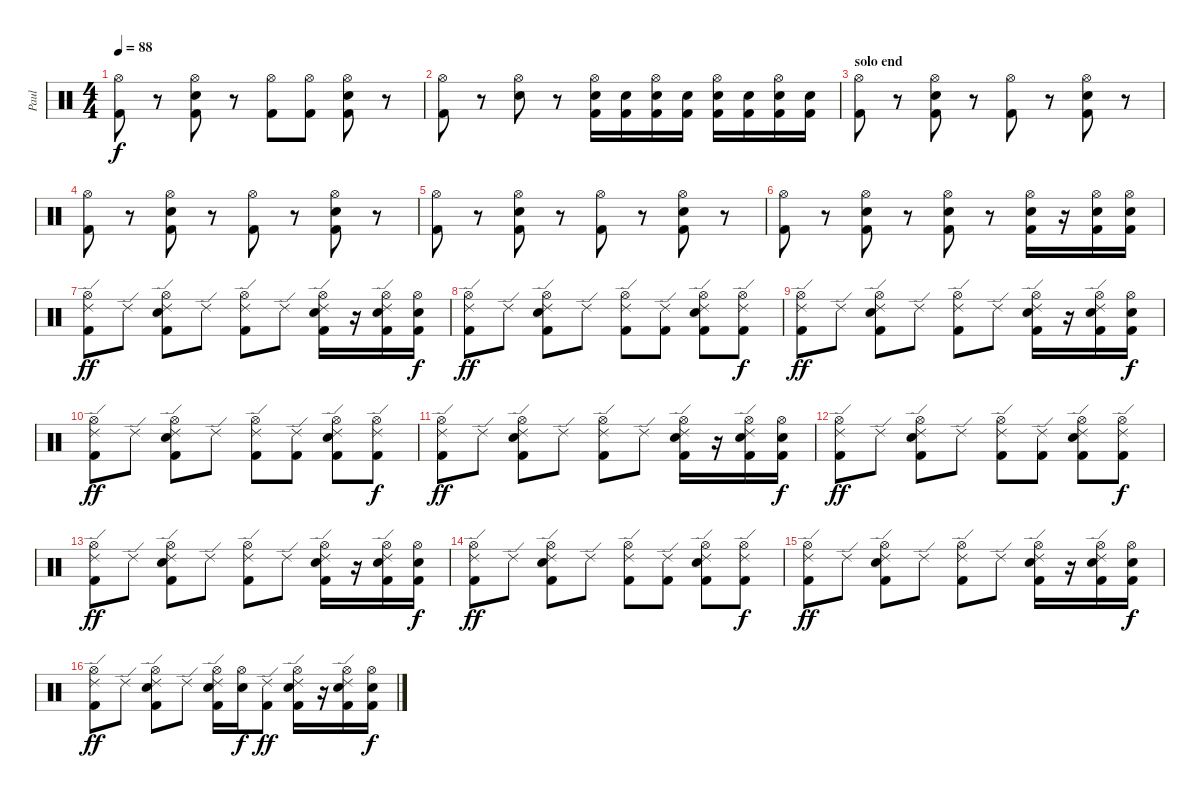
\track ("Paul" "Paul") {instrument percussion}
\staff {score}
\articulation defaults
\ts (4 4)
\tempo 88
\clef neutral
\ks c
("Hi-Hat (open)" "Kick (hit) 2").8{dy f} r.8 ("Snare (hit) 2" "Hi-Hat (open)" "Kick (hit) 2").8 r.8 ("Hi-Hat (open)" "Kick (hit) 2").8 ("Hi-Hat (open)" "Kick (hit) 2").8 ("Snare (hit) 2" "Hi-Hat (open)" "Kick (hit) 2").8 r.8 |
("Hi-Hat (open)" "Kick (hit) 2").8 r.8 ("Snare (hit) 2" "Hi-Hat (open)").8 r.8 ("Snare (hit) 2" "Hi-Hat (open)" "Kick (hit) 2").16 ("Snare (hit) 2" "Kick (hit) 2").16 ("Snare (hit) 2" "Hi-Hat (open)" "Kick (hit) 2").16 ("Snare (hit) 2" "Kick (hit) 2").16 ("Snare (hit) 2" "Hi-Hat (open)" "Kick (hit) 2").16 ("Snare (hit) 2" "Kick (hit) 2").16 ("Snare (hit) 2" "Hi-Hat (open)" "Kick (hit) 2").16 ("Snare (hit) 2" "Kick (hit) 2").16 |
\section ("" "solo end")
("Hi-Hat (open)" "Kick (hit) 2").8 r.8 ("Snare (hit) 2" "Hi-Hat (open)" "Kick (hit) 2").8 r.8 ("Hi-Hat (open)" "Kick (hit) 2").8 r.8 ("Snare (hit) 2" "Hi-Hat (open)" "Kick (hit) 2").8 r.8 |
("Hi-Hat (open)" "Kick (hit) 2").8 r.8 ("Snare (hit) 2" "Hi-Hat (open)" "Kick (hit) 2").8 r.8 ("Hi-Hat (open)" "Kick (hit) 2").8 r.8 ("Snare (hit) 2" "Hi-Hat (open)" "Kick (hit) 2").8 r.8 |
("Hi-Hat (open)" "Kick (hit) 2").8 r.8 ("Snare (hit) 2" "Hi-Hat (open)" "Kick (hit) 2").8 r.8 ("Hi-Hat (open)" "Kick (hit) 2").8 r.8 ("Snare (hit) 2" "Hi-Hat (open)" "Kick (hit) 2").8 r.8 |
("Hi-Hat (open)" "Kick (hit) 2").8 r.8 ("Snare (hit) 2" "Hi-Hat (open)" "Kick (hit) 2").8 r.8 ("Snare (hit) 2" "Hi-Hat (open)" "Kick (hit) 2").8 r.8 ("Snare (hit) 2" "Hi-Hat (open)" "Kick (hit) 2").16 r.16 ("Snare (hit) 2" "Hi-Hat (open)" "Kick (hit) 2").16 ("Snare (hit) 2" "Hi-Hat (open)" "Kick (hit) 2").16 |
("Hi-Hat (open)" "Ride (edge) 2" "Kick (hit) 2").8{dy ff} "Ride (edge) 2".8 ("Snare (hit) 2" "Hi-Hat (open)" "Ride (edge) 2" "Kick (hit) 2").8 "Ride (edge) 2".8 ("Hi-Hat (open)" "Ride (edge) 2" "Kick (hit) 2").8 "Ride (edge) 2".8 ("Snare (hit) 2" "Hi-Hat (open)" "Ride (edge) 2" "Kick (hit) 2").16 r.16 ("Snare (hit) 2" "Hi-Hat (open)" "Ride (edge) 2" "Kick (hit) 2").16 ("Snare (hit) 2" "Hi-Hat (open)" "Kick (hit) 2").16{dy f} |
("Hi-Hat (open)" "Ride (edge) 2" "Kick (hit) 2").8{dy ff} "Ride (edge) 2".8 ("Snare (hit) 2" "Hi-Hat (open)" "Ride (edge) 2" "Kick (hit) 2").8 "Ride (edge) 2".8 ("Hi-Hat (open)" "Ride (edge) 2" "Kick (hit) 2").8 ("Ride (edge) 2" "Kick (hit) 2").8 ("Snare (hit) 2" "Hi-Hat (open)" "Ride (edge) 2" "Kick (hit) 2").8 ("Hi-Hat (open)" "Ride (edge) 2" "Kick (hit) 2").8{dy f} |
("Hi-Hat (open)" "Ride (edge) 2" "Kick (hit) 2").8{dy ff} "Ride (edge) 2".8 ("Snare (hit) 2" "Hi-Hat (open)" "Ride (edge) 2" "Kick (hit) 2").8 "Ride (edge) 2".8 ("Hi-Hat (open)" "Ride (edge) 2" "Kick (hit) 2").8 "Ride (edge) 2".8 ("Snare (hit) 2" "Hi-Hat (open)" "Ride (edge) 2" "Kick (hit) 2").16 r.16 ("Snare (hit) 2" "Hi-Hat (open)" "Ride (edge) 2" "Kick (hit) 2").16 ("Snare (hit) 2" "Hi-Hat (open)" "Kick (hit) 2").16{dy f} |
("Hi-Hat (open)" "Ride (edge) 2" "Kick (hit) 2").8{dy ff} "Ride (edge) 2".8 ("Snare (hit) 2" "Hi-Hat (open)" "Ride (edge) 2" "Kick (hit) 2").8 "Ride (edge) 2".8 ("Hi-Hat (open)" "Ride (edge) 2" "Kick (hit) 2").8 ("Ride (edge) 2" "Kick (hit) 2").8 ("Snare (hit) 2" "Hi-Hat (open)" "Ride (edge) 2" "Kick (hit) 2").8 ("Hi-Hat (open)" "Ride (edge) 2" "Kick (hit) 2").8{dy f} |
("Hi-Hat (open)" "Ride (edge) 2" "Kick (hit) 2").8{dy ff} "Ride (edge) 2".8 ("Snare (hit) 2" "Hi-Hat (open)" "Ride (edge) 2" "Kick (hit) 2").8 "Ride (edge) 2".8 ("Hi-Hat (open)" "Ride (edge) 2" "Kick (hit) 2").8 "Ride (edge) 2".8 ("Snare (hit) 2" "Hi-Hat (open)" "Ride (edge) 2" "Kick (hit) 2").16 r.16 ("Snare (hit) 2" "Hi-Hat (open)" "Ride (edge) 2" "Kick (hit) 2").16 ("Snare (hit) 2" "Hi-Hat (open)" "Kick (hit) 2").16{dy f} |
("Hi-Hat (open)" "Ride (edge) 2" "Kick (hit) 2").8{dy ff} "Ride (edge) 2".8 ("Snare (hit) 2" "Hi-Hat (open)" "Ride (edge) 2" "Kick (hit) 2").8 "Ride (edge) 2".8 ("Hi-Hat (open)" "Ride (edge) 2" "Kick (hit) 2").8 ("Ride (edge) 2" "Kick (hit) 2").8 ("Snare (hit) 2" "Hi-Hat (open)" "Ride (edge) 2" "Kick (hit) 2").8 ("Hi-Hat (open)" "Ride (edge) 2" "Kick (hit) 2").8{dy f} |
("Hi-Hat (open)" "Ride (edge) 2" "Kick (hit) 2").8{dy ff} "Ride (edge) 2".8 ("Snare (hit) 2" "Hi-Hat (open)" "Ride (edge) 2" "Kick (hit) 2").8 "Ride (edge) 2".8 ("Hi-Hat (open)" "Ride (edge) 2" "Kick (hit) 2").8 "Ride (edge) 2".8 ("Snare (hit) 2" "Hi-Hat (open)" "Ride (edge) 2" "Kick (hit) 2").16 r.16 ("Snare (hit) 2" "Hi-Hat (open)" "Ride (edge) 2" "Kick (hit) 2").16 ("Snare (hit) 2" "Hi-Hat (open)" "Kick (hit) 2").16{dy f} |
("Hi-Hat (open)" "Ride (edge) 2" "Kick (hit) 2").8{dy ff} "Ride (edge) 2".8 ("Snare (hit) 2" "Hi-Hat (open)" "Ride (edge) 2" "Kick (hit) 2").8 "Ride (edge) 2".8 ("Hi-Hat (open)" "Ride (edge) 2" "Kick (hit) 2").8 ("Ride (edge) 2" "Kick (hit) 2").8 ("Snare (hit) 2" "Hi-Hat (open)" "Ride (edge) 2" "Kick (hit) 2").8 ("Hi-Hat (open)" "Ride (edge) 2" "Kick (hit) 2").8{dy f} |
("Hi-Hat (open)" "Ride (edge) 2" "Kick (hit) 2").8{dy ff} "Ride (edge) 2".8 ("Snare (hit) 2" "Hi-Hat (open)" "Ride (edge) 2" "Kick (hit) 2").8 "Ride (edge) 2".8 ("Hi-Hat (open)" "Ride (edge) 2" "Kick (hit) 2").8 "Ride (edge) 2".8 ("Snare (hit) 2" "Hi-Hat (open)" "Ride (edge) 2" "Kick (hit) 2").16 r.16 ("Snare (hit) 2" "Hi-Hat (open)" "Ride (edge) 2" "Kick (hit) 2").16 ("Snare (hit) 2" "Hi-Hat (open)" "Kick (hit) 2").16{dy f} |
("Hi-Hat (open)" "Ride (edge) 2" "Kick (hit) 2").8{dy ff} "Ride (edge) 2".8 ("Snare (hit) 2" "Hi-Hat (open)" "Ride (edge) 2" "Kick (hit) 2").8 "Ride (edge) 2".8 ("Snare (hit) 2" "Hi-Hat (open)" "Ride (edge) 2" "Kick (hit) 2").16 ("Snare (hit) 2" "Hi-Hat (open)").16{dy f} ("Ride (edge) 2" "Kick (hit) 2").8{dy ff} ("Snare (hit) 2" "Hi-Hat (open)" "Ride (edge) 2" "Kick (hit) 2").16 r.16 ("Snare (hit) 2" "Hi-Hat (open)" "Ride (edge) 2" "Kick (hit) 2").16 ("Snare (hit) 2" "Hi-Hat (open)" "Kick (hit) 2").16{dy f}
